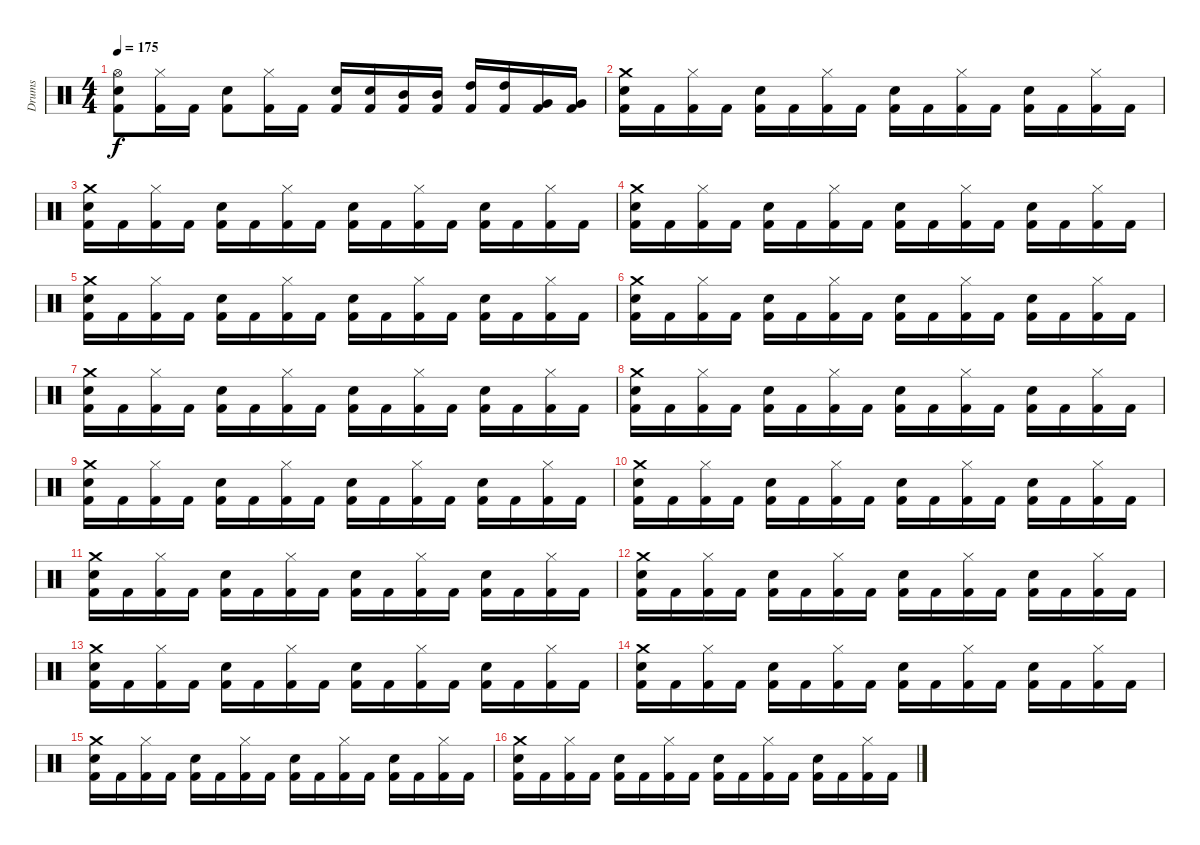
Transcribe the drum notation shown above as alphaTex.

\track ("Drums" "Drums") {instrument percussion}
\staff {score}
\articulation defaults
\ts (4 4)
\tempo 175
\clef neutral
\ks c
("Kick (hit) 2" "Snare (hit) 2" "Hi-Hat (open)").8{dy f} ("Kick (hit) 2" "Hi-Hat (closed)").16 "Kick (hit) 2".16 ("Kick (hit) 2" "Snare (hit) 2").8 ("Kick (hit) 2" "Hi-Hat (closed)").16 "Kick (hit) 2".16 ("Electric Snare (hit)" "Kick (hit) 2").16 ("Electric Snare (hit)" "Kick (hit) 2").16 ("Mid Tom (hit)" "Kick (hit) 2").16 ("Mid Tom (hit)" "Kick (hit) 2").16 ("High Tom (hit)" "Kick (hit) 2").16 ("High Tom (hit)" "Kick (hit) 2").16 ("Very Low Tom (hit)" "Kick (hit) 2").16 ("Very Low Tom (hit)" "Kick (hit) 2").16 |
("Kick (hit) 2" "Snare (hit) 2" "Crash medium (hit)").16 "Kick (hit) 2".16 ("Kick (hit) 2" "Hi-Hat (closed)").16 "Kick (hit) 2".16 ("Kick (hit) 2" "Snare (hit) 2").16 "Kick (hit) 2".16 ("Kick (hit) 2" "Hi-Hat (closed)").16 "Kick (hit) 2".16 ("Kick (hit) 2" "Snare (hit) 2").16 "Kick (hit) 2".16 ("Kick (hit) 2" "Hi-Hat (closed)").16 "Kick (hit) 2".16 ("Kick (hit) 2" "Snare (hit) 2").16 "Kick (hit) 2".16 ("Kick (hit) 2" "Hi-Hat (closed)").16 "Kick (hit) 2".16 |
("Kick (hit) 2" "Snare (hit) 2" "Crash medium (hit)").16 "Kick (hit) 2".16 ("Kick (hit) 2" "Hi-Hat (closed)").16 "Kick (hit) 2".16 ("Kick (hit) 2" "Snare (hit) 2").16 "Kick (hit) 2".16 ("Kick (hit) 2" "Hi-Hat (closed)").16 "Kick (hit) 2".16 ("Kick (hit) 2" "Snare (hit) 2").16 "Kick (hit) 2".16 ("Kick (hit) 2" "Hi-Hat (closed)").16 "Kick (hit) 2".16 ("Kick (hit) 2" "Snare (hit) 2").16 "Kick (hit) 2".16 ("Kick (hit) 2" "Hi-Hat (closed)").16 "Kick (hit) 2".16 |
("Kick (hit) 2" "Snare (hit) 2" "Crash medium (hit)").16 "Kick (hit) 2".16 ("Kick (hit) 2" "Hi-Hat (closed)").16 "Kick (hit) 2".16 ("Kick (hit) 2" "Snare (hit) 2").16 "Kick (hit) 2".16 ("Kick (hit) 2" "Hi-Hat (closed)").16 "Kick (hit) 2".16 ("Kick (hit) 2" "Snare (hit) 2").16 "Kick (hit) 2".16 ("Kick (hit) 2" "Hi-Hat (closed)").16 "Kick (hit) 2".16 ("Kick (hit) 2" "Snare (hit) 2").16 "Kick (hit) 2".16 ("Kick (hit) 2" "Hi-Hat (closed)").16 "Kick (hit) 2".16 |
("Kick (hit) 2" "Snare (hit) 2" "Crash medium (hit)").16 "Kick (hit) 2".16 ("Kick (hit) 2" "Hi-Hat (closed)").16 "Kick (hit) 2".16 ("Kick (hit) 2" "Snare (hit) 2").16 "Kick (hit) 2".16 ("Kick (hit) 2" "Hi-Hat (closed)").16 "Kick (hit) 2".16 ("Kick (hit) 2" "Snare (hit) 2").16 "Kick (hit) 2".16 ("Kick (hit) 2" "Hi-Hat (closed)").16 "Kick (hit) 2".16 ("Kick (hit) 2" "Snare (hit) 2").16 "Kick (hit) 2".16 ("Kick (hit) 2" "Hi-Hat (closed)").16 "Kick (hit) 2".16 |
("Kick (hit) 2" "Snare (hit) 2" "Crash medium (hit)").16 "Kick (hit) 2".16 ("Kick (hit) 2" "Hi-Hat (closed)").16 "Kick (hit) 2".16 ("Kick (hit) 2" "Snare (hit) 2").16 "Kick (hit) 2".16 ("Kick (hit) 2" "Hi-Hat (closed)").16 "Kick (hit) 2".16 ("Kick (hit) 2" "Snare (hit) 2").16 "Kick (hit) 2".16 ("Kick (hit) 2" "Hi-Hat (closed)").16 "Kick (hit) 2".16 ("Kick (hit) 2" "Snare (hit) 2").16 "Kick (hit) 2".16 ("Kick (hit) 2" "Hi-Hat (closed)").16 "Kick (hit) 2".16 |
("Kick (hit) 2" "Snare (hit) 2" "Crash medium (hit)").16 "Kick (hit) 2".16 ("Kick (hit) 2" "Hi-Hat (closed)").16 "Kick (hit) 2".16 ("Kick (hit) 2" "Snare (hit) 2").16 "Kick (hit) 2".16 ("Kick (hit) 2" "Hi-Hat (closed)").16 "Kick (hit) 2".16 ("Kick (hit) 2" "Snare (hit) 2").16 "Kick (hit) 2".16 ("Kick (hit) 2" "Hi-Hat (closed)").16 "Kick (hit) 2".16 ("Kick (hit) 2" "Snare (hit) 2").16 "Kick (hit) 2".16 ("Kick (hit) 2" "Hi-Hat (closed)").16 "Kick (hit) 2".16 |
("Kick (hit) 2" "Snare (hit) 2" "Crash medium (hit)").16 "Kick (hit) 2".16 ("Kick (hit) 2" "Hi-Hat (closed)").16 "Kick (hit) 2".16 ("Kick (hit) 2" "Snare (hit) 2").16 "Kick (hit) 2".16 ("Kick (hit) 2" "Hi-Hat (closed)").16 "Kick (hit) 2".16 ("Kick (hit) 2" "Snare (hit) 2").16 "Kick (hit) 2".16 ("Kick (hit) 2" "Hi-Hat (closed)").16 "Kick (hit) 2".16 ("Kick (hit) 2" "Snare (hit) 2").16 "Kick (hit) 2".16 ("Kick (hit) 2" "Hi-Hat (closed)").16 "Kick (hit) 2".16 |
("Kick (hit) 2" "Snare (hit) 2" "Crash medium (hit)").16 "Kick (hit) 2".16 ("Kick (hit) 2" "Hi-Hat (closed)").16 "Kick (hit) 2".16 ("Kick (hit) 2" "Snare (hit) 2").16 "Kick (hit) 2".16 ("Kick (hit) 2" "Hi-Hat (closed)").16 "Kick (hit) 2".16 ("Kick (hit) 2" "Snare (hit) 2").16 "Kick (hit) 2".16 ("Kick (hit) 2" "Hi-Hat (closed)").16 "Kick (hit) 2".16 ("Kick (hit) 2" "Snare (hit) 2").16 "Kick (hit) 2".16 ("Kick (hit) 2" "Hi-Hat (closed)").16 "Kick (hit) 2".16 |
("Kick (hit) 2" "Snare (hit) 2" "Crash medium (hit)").16 "Kick (hit) 2".16 ("Kick (hit) 2" "Hi-Hat (closed)").16 "Kick (hit) 2".16 ("Kick (hit) 2" "Snare (hit) 2").16 "Kick (hit) 2".16 ("Kick (hit) 2" "Hi-Hat (closed)").16 "Kick (hit) 2".16 ("Kick (hit) 2" "Snare (hit) 2").16 "Kick (hit) 2".16 ("Kick (hit) 2" "Hi-Hat (closed)").16 "Kick (hit) 2".16 ("Kick (hit) 2" "Snare (hit) 2").16 "Kick (hit) 2".16 ("Kick (hit) 2" "Hi-Hat (closed)").16 "Kick (hit) 2".16 |
("Kick (hit) 2" "Snare (hit) 2" "Crash medium (hit)").16 "Kick (hit) 2".16 ("Kick (hit) 2" "Hi-Hat (closed)").16 "Kick (hit) 2".16 ("Kick (hit) 2" "Snare (hit) 2").16 "Kick (hit) 2".16 ("Kick (hit) 2" "Hi-Hat (closed)").16 "Kick (hit) 2".16 ("Kick (hit) 2" "Snare (hit) 2").16 "Kick (hit) 2".16 ("Kick (hit) 2" "Hi-Hat (closed)").16 "Kick (hit) 2".16 ("Kick (hit) 2" "Snare (hit) 2").16 "Kick (hit) 2".16 ("Kick (hit) 2" "Hi-Hat (closed)").16 "Kick (hit) 2".16 |
("Kick (hit) 2" "Snare (hit) 2" "Crash medium (hit)").16 "Kick (hit) 2".16 ("Kick (hit) 2" "Hi-Hat (closed)").16 "Kick (hit) 2".16 ("Kick (hit) 2" "Snare (hit) 2").16 "Kick (hit) 2".16 ("Kick (hit) 2" "Hi-Hat (closed)").16 "Kick (hit) 2".16 ("Kick (hit) 2" "Snare (hit) 2").16 "Kick (hit) 2".16 ("Kick (hit) 2" "Hi-Hat (closed)").16 "Kick (hit) 2".16 ("Kick (hit) 2" "Snare (hit) 2").16 "Kick (hit) 2".16 ("Kick (hit) 2" "Hi-Hat (closed)").16 "Kick (hit) 2".16 |
("Kick (hit) 2" "Snare (hit) 2" "Crash medium (hit)").16 "Kick (hit) 2".16 ("Kick (hit) 2" "Hi-Hat (closed)").16 "Kick (hit) 2".16 ("Kick (hit) 2" "Snare (hit) 2").16 "Kick (hit) 2".16 ("Kick (hit) 2" "Hi-Hat (closed)").16 "Kick (hit) 2".16 ("Kick (hit) 2" "Snare (hit) 2").16 "Kick (hit) 2".16 ("Kick (hit) 2" "Hi-Hat (closed)").16 "Kick (hit) 2".16 ("Kick (hit) 2" "Snare (hit) 2").16 "Kick (hit) 2".16 ("Kick (hit) 2" "Hi-Hat (closed)").16 "Kick (hit) 2".16 |
("Kick (hit) 2" "Snare (hit) 2" "Crash medium (hit)").16 "Kick (hit) 2".16 ("Kick (hit) 2" "Hi-Hat (closed)").16 "Kick (hit) 2".16 ("Kick (hit) 2" "Snare (hit) 2").16 "Kick (hit) 2".16 ("Kick (hit) 2" "Hi-Hat (closed)").16 "Kick (hit) 2".16 ("Kick (hit) 2" "Snare (hit) 2").16 "Kick (hit) 2".16 ("Kick (hit) 2" "Hi-Hat (closed)").16 "Kick (hit) 2".16 ("Kick (hit) 2" "Snare (hit) 2").16 "Kick (hit) 2".16 ("Kick (hit) 2" "Hi-Hat (closed)").16 "Kick (hit) 2".16 |
("Kick (hit) 2" "Snare (hit) 2" "Crash medium (hit)").16 "Kick (hit) 2".16 ("Kick (hit) 2" "Hi-Hat (closed)").16 "Kick (hit) 2".16 ("Kick (hit) 2" "Snare (hit) 2").16 "Kick (hit) 2".16 ("Kick (hit) 2" "Hi-Hat (closed)").16 "Kick (hit) 2".16 ("Kick (hit) 2" "Snare (hit) 2").16 "Kick (hit) 2".16 ("Kick (hit) 2" "Hi-Hat (closed)").16 "Kick (hit) 2".16 ("Kick (hit) 2" "Snare (hit) 2").16 "Kick (hit) 2".16 ("Kick (hit) 2" "Hi-Hat (closed)").16 "Kick (hit) 2".16 |
("Kick (hit) 2" "Snare (hit) 2" "Crash medium (hit)").16 "Kick (hit) 2".16 ("Kick (hit) 2" "Hi-Hat (closed)").16 "Kick (hit) 2".16 ("Kick (hit) 2" "Snare (hit) 2").16 "Kick (hit) 2".16 ("Kick (hit) 2" "Hi-Hat (closed)").16 "Kick (hit) 2".16 ("Kick (hit) 2" "Snare (hit) 2").16 "Kick (hit) 2".16 ("Kick (hit) 2" "Hi-Hat (closed)").16 "Kick (hit) 2".16 ("Kick (hit) 2" "Snare (hit) 2").16 "Kick (hit) 2".16 ("Kick (hit) 2" "Hi-Hat (closed)").16 "Kick (hit) 2".16
